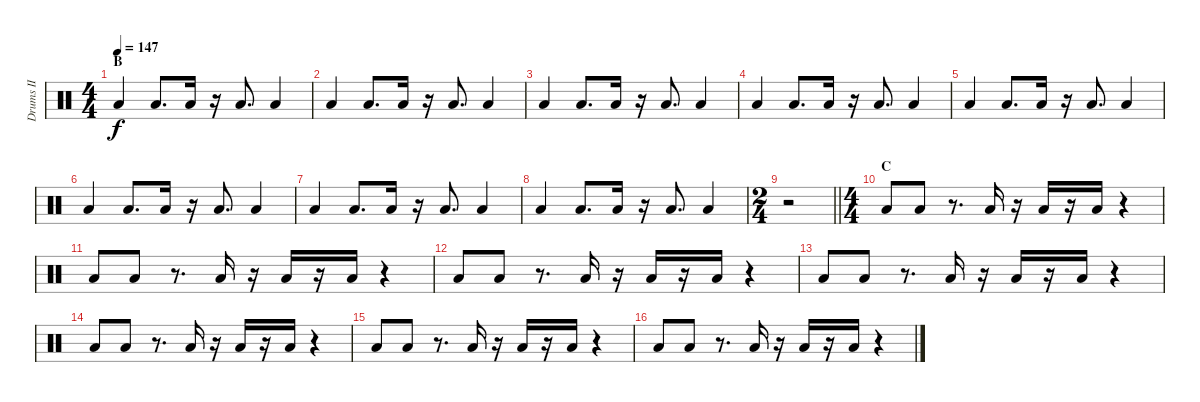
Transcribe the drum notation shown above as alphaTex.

\track ("Drums II" "Drums II") {instrument percussion}
\staff {score}
\articulation defaults
\ts (4 4)
\section ("" "B")
\tempo 147
\clef neutral
\ks c "Low Tom (hit)".4{dy f} "Low Tom (hit)".8{d} "Low Tom (hit)".16
r.16 "Low Tom (hit)".8{d} "Low Tom (hit)".4 |
"Low Tom (hit)".4 "Low Tom (hit)".8{d} "Low Tom (hit)".16 r.16 "Low Tom (hit)".8{d} "Low Tom (hit)".4 |
"Low Tom (hit)".4 "Low Tom (hit)".8{d} "Low Tom (hit)".16 r.16 "Low Tom (hit)".8{d} "Low Tom (hit)".4 |
"Low Tom (hit)".4 "Low Tom (hit)".8{d} "Low Tom (hit)".16 r.16 "Low Tom (hit)".8{d} "Low Tom (hit)".4 |
"Low Tom (hit)".4 "Low Tom (hit)".8{d} "Low Tom (hit)".16 r.16 "Low Tom (hit)".8{d} "Low Tom (hit)".4 |
"Low Tom (hit)".4 "Low Tom (hit)".8{d} "Low Tom (hit)".16 r.16 "Low Tom (hit)".8{d} "Low Tom (hit)".4 |
"Low Tom (hit)".4 "Low Tom (hit)".8{d} "Low Tom (hit)".16 r.16 "Low Tom (hit)".8{d} "Low Tom (hit)".4 |
"Low Tom (hit)".4 "Low Tom (hit)".8{d} "Low Tom (hit)".16 r.16 "Low Tom (hit)".8{d} "Low Tom (hit)".4 |
\ts (2 4)
\barLineRight lightlight
r.2 |
\ts (4 4)
\section ("" "C")
"Low Tom (hit)".8 "Low Tom (hit)".8 r.8{d} "Low Tom (hit)".16 r.16 "Low Tom (hit)".16 r.16 "Low Tom (hit)".16 r.4 |
"Low Tom (hit)".8 "Low Tom (hit)".8 r.8{d} "Low Tom (hit)".16 r.16 "Low Tom (hit)".16 r.16 "Low Tom (hit)".16 r.4 |
"Low Tom (hit)".8 "Low Tom (hit)".8 r.8{d} "Low Tom (hit)".16 r.16 "Low Tom (hit)".16 r.16 "Low Tom (hit)".16 r.4 |
"Low Tom (hit)".8 "Low Tom (hit)".8 r.8{d} "Low Tom (hit)".16 r.16 "Low Tom (hit)".16 r.16 "Low Tom (hit)".16 r.4 |
"Low Tom (hit)".8 "Low Tom (hit)".8 r.8{d} "Low Tom (hit)".16 r.16 "Low Tom (hit)".16 r.16 "Low Tom (hit)".16 r.4 |
"Low Tom (hit)".8 "Low Tom (hit)".8 r.8{d} "Low Tom (hit)".16 r.16 "Low Tom (hit)".16 r.16 "Low Tom (hit)".16 r.4 |
"Low Tom (hit)".8 "Low Tom (hit)".8 r.8{d} "Low Tom (hit)".16 r.16 "Low Tom (hit)".16 r.16 "Low Tom (hit)".16 r.4
